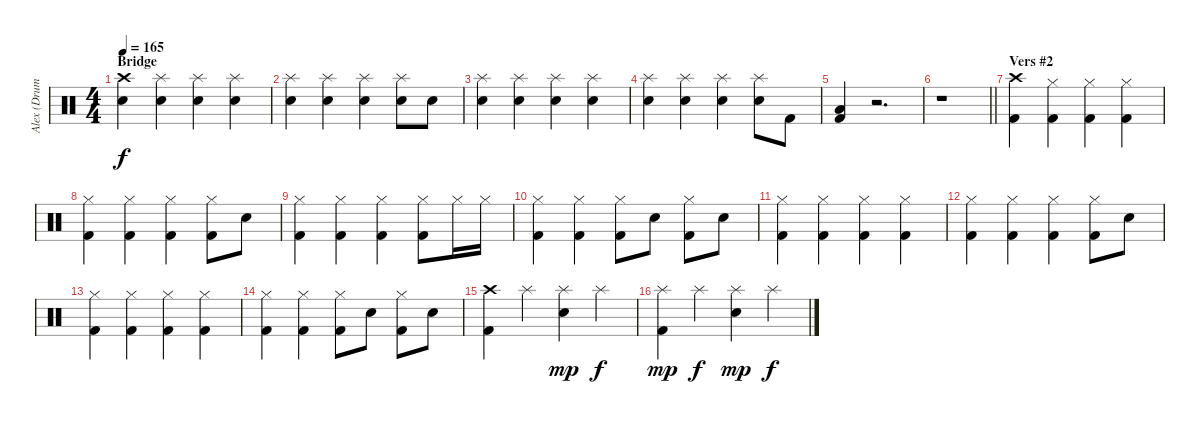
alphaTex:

\track ("Alex (Drums)" "Alex (Drum") {instrument percussion}
\staff {score}
\articulation defaults
\ts (4 4)
\section ("" "Bridge")
\tempo 165
\clef neutral
\ks c
("Crash high (hit)" "Snare (hit) 2").4{dy f} ("Splash (hit)" "Snare (hit) 2").4 ("Splash (hit)" "Snare (hit) 2").4 ("Splash (hit)" "Snare (hit) 2").4 |
("Splash (hit)" "Snare (hit) 2").4 ("Splash (hit)" "Snare (hit) 2").4 ("Splash (hit)" "Snare (hit) 2").4 ("Splash (hit)" "Snare (hit) 2").8 "Snare (hit) 2".8 |
("Splash (hit)" "Snare (hit) 2").4 ("Splash (hit)" "Snare (hit) 2").4 ("Splash (hit)" "Snare (hit) 2").4 ("Splash (hit)" "Snare (hit) 2").4 |
("Splash (hit)" "Snare (hit) 2").4 ("Splash (hit)" "Snare (hit) 2").4 ("Splash (hit)" "Snare (hit) 2").4 ("Splash (hit)" "Snare (hit) 2").8 "Kick (hit) 2".8 |
("Low Floor Tom (hit)" "Kick (hit) 2").4 r.2{d} |
\barLineRight lightlight
r.1 |
\section ("" "Vers #2")
("Crash high (hit)" "Kick (hit) 2").4{volume 8} ("Hi-Hat (closed)" "Kick (hit) 2").4 ("Hi-Hat (closed)" "Kick (hit) 2").4 ("Hi-Hat (closed)" "Kick (hit) 2").4 |
("Hi-Hat (closed)" "Kick (hit) 2").4 ("Hi-Hat (closed)" "Kick (hit) 2").4 ("Hi-Hat (closed)" "Kick (hit) 2").4 ("Hi-Hat (closed)" "Kick (hit) 2").8 "Snare (hit) 2".8 |
("Hi-Hat (closed)" "Kick (hit) 2").4 ("Hi-Hat (closed)" "Kick (hit) 2").4 ("Hi-Hat (closed)" "Kick (hit) 2").4 ("Hi-Hat (closed)" "Kick (hit) 2").8 "Hi-Hat (closed)".16 "Hi-Hat (closed)".16 |
("Hi-Hat (closed)" "Kick (hit) 2").4 ("Hi-Hat (closed)" "Kick (hit) 2").4 ("Hi-Hat (closed)" "Kick (hit) 2").8 "Snare (hit) 2".8 ("Hi-Hat (closed)" "Kick (hit) 2").8 "Snare (hit) 2".8 |
("Hi-Hat (closed)" "Kick (hit) 2").4 ("Hi-Hat (closed)" "Kick (hit) 2").4 ("Hi-Hat (closed)" "Kick (hit) 2").4 ("Hi-Hat (closed)" "Kick (hit) 2").4 |
("Hi-Hat (closed)" "Kick (hit) 2").4 ("Hi-Hat (closed)" "Kick (hit) 2").4 ("Hi-Hat (closed)" "Kick (hit) 2").4 ("Hi-Hat (closed)" "Kick (hit) 2").8 "Snare (hit) 2".8 |
("Hi-Hat (closed)" "Kick (hit) 2").4 ("Hi-Hat (closed)" "Kick (hit) 2").4 ("Hi-Hat (closed)" "Kick (hit) 2").4 ("Hi-Hat (closed)" "Kick (hit) 2").4 |
("Hi-Hat (closed)" "Kick (hit) 2").4 ("Hi-Hat (closed)" "Kick (hit) 2").4 ("Hi-Hat (closed)" "Kick (hit) 2").8 "Snare (hit) 2".8 ("Hi-Hat (closed)" "Kick (hit) 2").8 "Snare (hit) 2".8 |
("Crash high (hit)" "Kick (hit) 2").4 "Splash (hit)".4 ("Splash (hit)" "Snare (hit) 2").4{dy mp} "Splash (hit)".4{dy f} |
("Splash (hit)" "Kick (hit) 2").4{dy mp} "Splash (hit)".4{dy f} ("Splash (hit)" "Snare (hit) 2").4{dy mp} "Splash (hit)".4{dy f}
